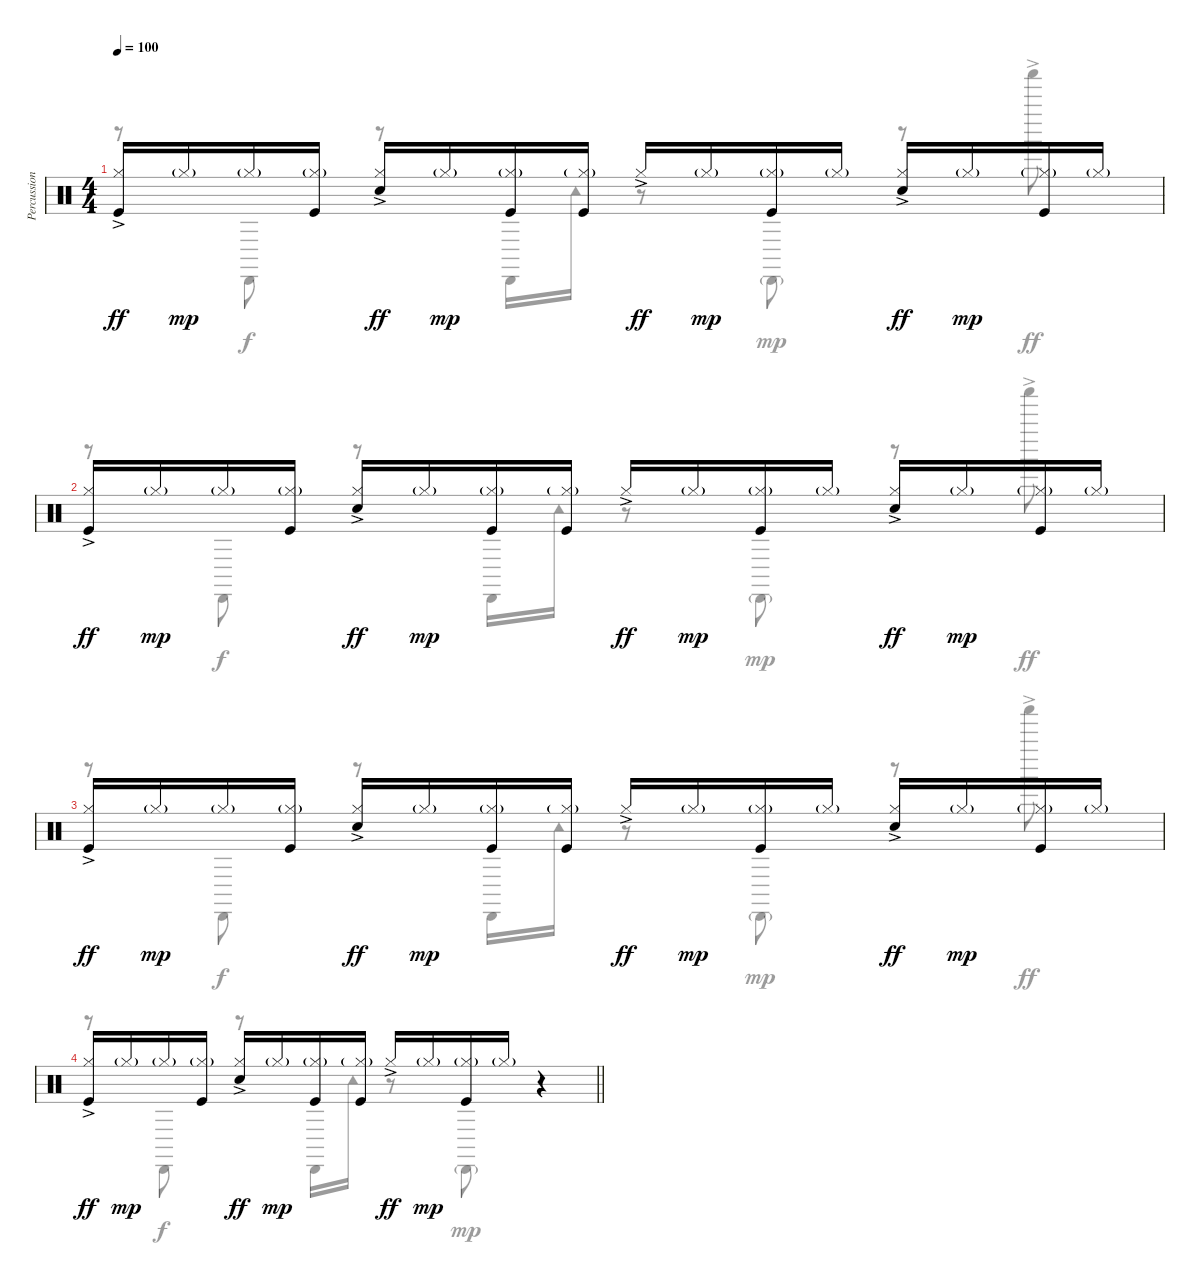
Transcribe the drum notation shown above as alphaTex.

\track ("Percussions" "Percussion") {instrument percussion}
\staff {score}
\articulation defaults
\voice
\ts (4 4)
\tempo 100
\clef neutral
\ks c
("Kick (hit)" "Hi-Hat (closed)"{ac}).16{dy ff} "Hi-Hat (closed)"{g}.16{dy mp} "Hi-Hat (closed)"{g}.16 ("Kick (hit)" "Hi-Hat (closed)"{g}).16 ("Electric Snare (hit)" "Hi-Hat (closed)"{ac}).16{dy ff} "Hi-Hat (closed)"{g}.16{dy mp} ("Kick (hit)" "Hi-Hat (closed)"{g}).16 ("Kick (hit)" "Hi-Hat (closed)"{g}).16 "Hi-Hat (closed)"{ac}.16{dy ff} "Hi-Hat (closed)"{g}.16{dy mp} ("Kick (hit)" "Hi-Hat (closed)"{g}).16 "Hi-Hat (closed)"{g}.16 ("Snare (hit) 2" "Hi-Hat (closed)"{ac}).16{dy ff} "Hi-Hat (closed)"{g}.16{dy mp} ("Kick (hit)" "Hi-Hat (closed)"{g}).16 "Hi-Hat (closed)"{g}.16 |
("Kick (hit)" "Hi-Hat (closed)"{ac}).16{dy ff} "Hi-Hat (closed)"{g}.16{dy mp} "Hi-Hat (closed)"{g}.16 ("Kick (hit)" "Hi-Hat (closed)"{g}).16 ("Electric Snare (hit)" "Hi-Hat (closed)"{ac}).16{dy ff} "Hi-Hat (closed)"{g}.16{dy mp} ("Kick (hit)" "Hi-Hat (closed)"{g}).16 ("Kick (hit)" "Hi-Hat (closed)"{g}).16 "Hi-Hat (closed)"{ac}.16{dy ff} "Hi-Hat (closed)"{g}.16{dy mp} ("Kick (hit)" "Hi-Hat (closed)"{g}).16 "Hi-Hat (closed)"{g}.16 ("Snare (hit) 2" "Hi-Hat (closed)"{ac}).16{dy ff} "Hi-Hat (closed)"{g}.16{dy mp} ("Kick (hit)" "Hi-Hat (closed)"{g}).16 "Hi-Hat (closed)"{g}.16 |
("Kick (hit)" "Hi-Hat (closed)"{ac}).16{dy ff} "Hi-Hat (closed)"{g}.16{dy mp} "Hi-Hat (closed)"{g}.16 ("Kick (hit)" "Hi-Hat (closed)"{g}).16 ("Electric Snare (hit)" "Hi-Hat (closed)"{ac}).16{dy ff} "Hi-Hat (closed)"{g}.16{dy mp} ("Kick (hit)" "Hi-Hat (closed)"{g}).16 ("Kick (hit)" "Hi-Hat (closed)"{g}).16 "Hi-Hat (closed)"{ac}.16{dy ff} "Hi-Hat (closed)"{g}.16{dy mp} ("Kick (hit)" "Hi-Hat (closed)"{g}).16 "Hi-Hat (closed)"{g}.16 ("Snare (hit) 2" "Hi-Hat (closed)"{ac}).16{dy ff} "Hi-Hat (closed)"{g}.16{dy mp} ("Kick (hit)" "Hi-Hat (closed)"{g}).16 "Hi-Hat (closed)"{g}.16 |
\barLineRight lightlight
("Kick (hit)" "Hi-Hat (closed)"{ac}).16{dy ff} "Hi-Hat (closed)"{g}.16{dy mp} "Hi-Hat (closed)"{g}.16 ("Kick (hit)" "Hi-Hat (closed)"{g}).16 ("Electric Snare (hit)" "Hi-Hat (closed)"{ac}).16{dy ff} "Hi-Hat (closed)"{g}.16{dy mp} ("Kick (hit)" "Hi-Hat (closed)"{g}).16 ("Kick (hit)" "Hi-Hat (closed)"{g}).16 "Hi-Hat (closed)"{ac}.16{dy ff} "Hi-Hat (closed)"{g}.16{dy mp} ("Kick (hit)" "Hi-Hat (closed)"{g}).16 "Hi-Hat (closed)"{g}.16 r.4
\voice
\clef neutral
\ottava regular
\simile none
\ks c
r.8{dy ff} "Cabasa (hit)".8{dy f} r.8 "Cabasa (hit)".16 "Tambourine (hit)".16 r.8 "Cabasa (hit)"{g}.8{dy mp} r.8 "Shaker (hit)"{ac}.8{dy ff} |
r.8 "Cabasa (hit)".8{dy f} r.8 "Cabasa (hit)".16 "Tambourine (hit)".16 r.8 "Cabasa (hit)"{g}.8{dy mp} r.8 "Shaker (hit)"{ac}.8{dy ff} |
r.8 "Cabasa (hit)".8{dy f} r.8 "Cabasa (hit)".16 "Tambourine (hit)".16 r.8 "Cabasa (hit)"{g}.8{dy mp} r.8 "Shaker (hit)"{ac}.8{dy ff} |
\barLineRight lightlight
r.8 "Cabasa (hit)".8{dy f} r.8 "Cabasa (hit)".16 "Tambourine (hit)".16 r.8 "Cabasa (hit)"{g}.8{dy mp} r.4
